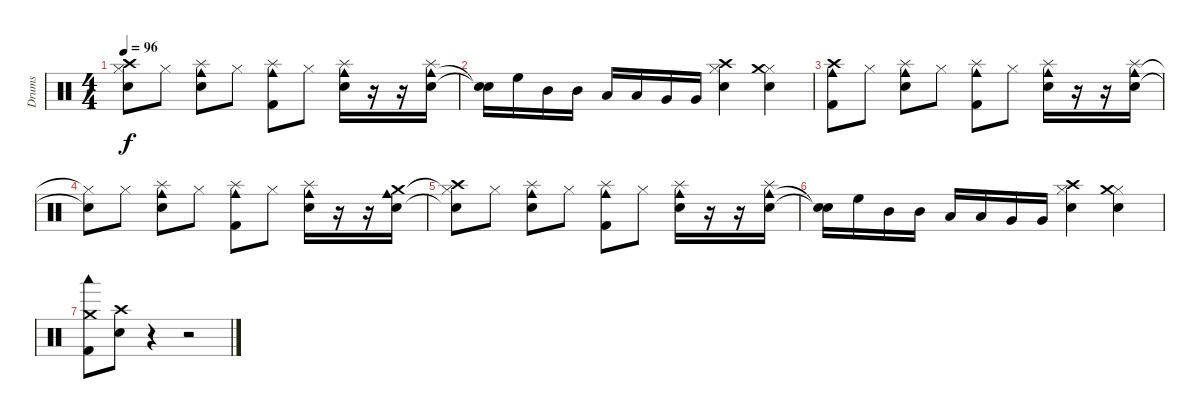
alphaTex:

\track ("Drums" "Drums") {instrument percussion}
\staff {score}
\articulation defaults
\ts (4 4)
\tempo 96
\clef neutral
\ks c
("Snare (hit) 2"{t} "Hi-Hat (closed)"{t} "Crash high (hit)").8{dy f} "Hi-Hat (closed)".8 ("Snare (hit) 2" "Cowbell medium (hit)" "Splash (hit)").8 "Hi-Hat (closed)".8 ("Kick (hit) 2" "Cowbell medium (hit)" "Splash (hit)").8 "Hi-Hat (closed)".8 ("Snare (hit) 2" "Cowbell medium (hit)" "Splash (hit)").16 r.16 r.16 ("Snare (hit) 2" "Cowbell medium (hit)" "Splash (hit)").16 |
("Snare (hit)"{t} "Snare (hit)"{t}).16 "High Floor Tom (hit)".16 "Mid Tom (hit)".16 "Mid Tom (hit)".16 "Low Tom (hit)".16 "Low Tom (hit)".16 "Very Low Tom (hit)".16 "Very Low Tom (hit)".16 ("Snare (hit) 2" "Hi-Hat (closed)" "Crash high (hit)").4 ("Snare (hit) 2" "Hi-Hat (closed)" "Crash medium (hit)").4 |
("Kick (hit) 2" "Cowbell medium (hit)" "Crash high (hit)").8 "Hi-Hat (closed)".8 ("Snare (hit) 2" "Cowbell medium (hit)" "Splash (hit)").8 "Hi-Hat (closed)".8 ("Kick (hit) 2" "Cowbell medium (hit)" "Splash (hit)").8 "Hi-Hat (closed)".8 ("Snare (hit) 2" "Cowbell medium (hit)" "Splash (hit)").16 r.16 r.16 ("Snare (hit) 2" "Cowbell medium (hit)" "Splash (hit)").16 |
("Snare (hit) 2"{t} "Hi-Hat (closed)"{t}).8 "Hi-Hat (closed)".8 ("Snare (hit) 2" "Cowbell medium (hit)" "Splash (hit)").8 "Hi-Hat (closed)".8 ("Kick (hit) 2" "Cowbell medium (hit)" "Splash (hit)").8 "Hi-Hat (closed)".8 ("Snare (hit) 2" "Cowbell medium (hit)" "Splash (hit)").16 r.16 r.16 ("Snare (hit) 2" "Cowbell medium (hit)" "Crash medium (hit)").16 |
("Snare (hit) 2"{t} "Hi-Hat (closed)"{t} "Crash high (hit)").8 "Hi-Hat (closed)".8 ("Snare (hit) 2" "Cowbell medium (hit)" "Splash (hit)").8 "Hi-Hat (closed)".8 ("Kick (hit) 2" "Cowbell medium (hit)" "Splash (hit)").8 "Hi-Hat (closed)".8 ("Snare (hit) 2" "Cowbell medium (hit)" "Splash (hit)").16 r.16 r.16 ("Snare (hit) 2" "Cowbell medium (hit)" "Splash (hit)").16 |
("Snare (hit)"{t} "Snare (hit)"{t}).16 "High Floor Tom (hit)".16 "Mid Tom (hit)".16 "Mid Tom (hit)".16 "Low Tom (hit)".16 "Low Tom (hit)".16 "Very Low Tom (hit)".16 "Very Low Tom (hit)".16 ("Snare (hit) 2" "Hi-Hat (closed)" "Crash high (hit)").4 ("Snare (hit) 2" "Hi-Hat (closed)" "Crash medium (hit)").4 |
("Kick (hit) 2" "Crash medium (hit)" "Woodblock low (hit)").8 ("Snare (hit) 2" "Crash high (hit)").8 r.4 r.2
